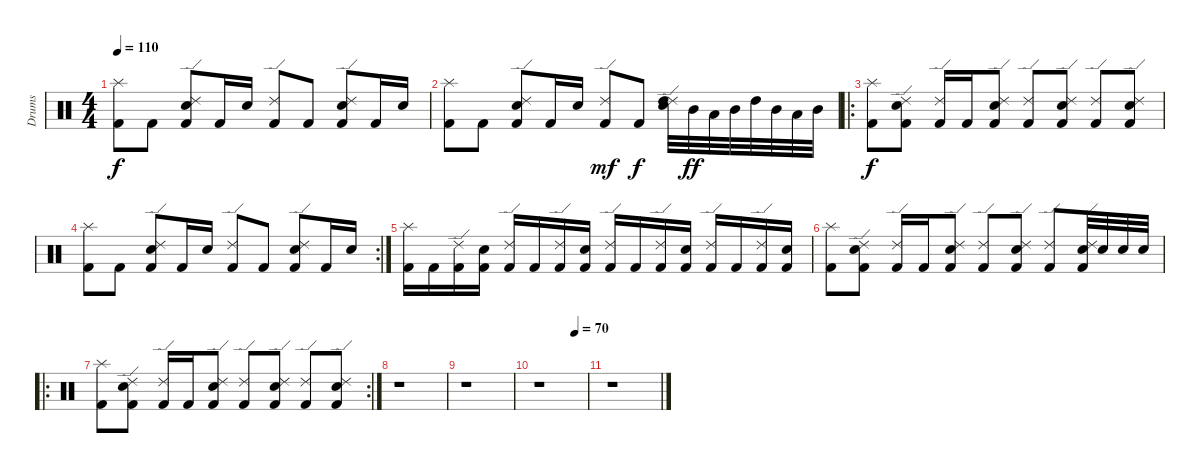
\track ("Drums" "Drums") {instrument percussion}
\staff {score}
\articulation defaults
\ts (4 4)
\tempo 110
\clef neutral
\ks c
("Splash (hit)" "Kick (hit) 2").8{dy f} "Kick (hit) 2".8 ("Electric Snare (hit)" "Ride (edge) 2" "Kick (hit) 2").8 "Kick (hit) 2".16 "Electric Snare (hit)".16 ("Ride (edge) 2" "Kick (hit) 2").8 "Kick (hit) 2".8 ("Electric Snare (hit)" "Ride (edge) 2" "Kick (hit) 2").8 "Kick (hit) 2".16 "Electric Snare (hit)".16 |
("Splash (hit)" "Kick (hit) 2").8 "Kick (hit) 2".8 ("Electric Snare (hit)" "Ride (edge) 2" "Kick (hit) 2").8 "Kick (hit) 2".16 "Electric Snare (hit)".16 ("Ride (edge) 2" "Kick (hit) 2").8{dy mf} "Kick (hit) 2".8{dy f} ("Electric Snare (hit)" "Ride (edge) 2" "High Tom (hit)").32 "Mid Tom (hit)".32{dy ff} "Low Tom (hit)".32 "Mid Tom (hit)".32 "High Tom (hit)".32 "Mid Tom (hit)".32 "Low Tom (hit)".32 "Mid Tom (hit)".32 |
\ro
("Splash (hit)" "Kick (hit) 2").8{dy f} ("Electric Snare (hit)" "Ride (edge) 2" "Kick (hit) 2").8 ("Ride (edge) 2" "Kick (hit) 2").16 "Kick (hit) 2".16 ("Electric Snare (hit)" "Ride (edge) 2" "Kick (hit) 2").8 ("Ride (edge) 2" "Kick (hit) 2").8 ("Electric Snare (hit)" "Ride (edge) 2" "Kick (hit) 2").8 ("Ride (edge) 2" "Kick (hit) 2").8 ("Electric Snare (hit)" "Ride (edge) 2" "Kick (hit) 2").8 |
\rc 2
("Splash (hit)" "Kick (hit) 2").8 "Kick (hit) 2".8 ("Electric Snare (hit)" "Ride (edge) 2" "Kick (hit) 2").8 "Kick (hit) 2".16 "Electric Snare (hit)".16 ("Ride (edge) 2" "Kick (hit) 2").8 "Kick (hit) 2".8 ("Electric Snare (hit)" "Ride (edge) 2" "Kick (hit) 2").8 "Kick (hit) 2".16 "Electric Snare (hit)".16 |
("Splash (hit)" "Kick (hit) 2").16 "Kick (hit) 2".16 ("Ride (edge) 2" "Kick (hit) 2").16 ("Electric Snare (hit)" "Kick (hit) 2").16 ("Ride (edge) 2" "Kick (hit) 2").16 "Kick (hit) 2".16 ("Ride (edge) 2" "Kick (hit) 2").16 ("Electric Snare (hit)" "Kick (hit) 2").16 ("Ride (edge) 2" "Kick (hit) 2").16 "Kick (hit) 2".16 ("Ride (edge) 2" "Kick (hit) 2").16 ("Electric Snare (hit)" "Kick (hit) 2").16 ("Ride (edge) 2" "Kick (hit) 2").16 "Kick (hit) 2".16 ("Ride (edge) 2" "Kick (hit) 2").16 ("Electric Snare (hit)" "Kick (hit) 2").16 |
("Splash (hit)" "Kick (hit) 2").8 ("Electric Snare (hit)" "Ride (edge) 2" "Kick (hit) 2").8 ("Ride (edge) 2" "Kick (hit) 2").16 "Kick (hit) 2".16 ("Electric Snare (hit)" "Ride (edge) 2" "Kick (hit) 2").8 ("Ride (edge) 2" "Kick (hit) 2").8 ("Electric Snare (hit)" "Ride (edge) 2" "Kick (hit) 2").8 ("Ride (edge) 2" "Kick (hit) 2").8 ("Electric Snare (hit)" "Ride (edge) 2" "Kick (hit) 2").32 "Electric Snare (hit)".32 "Electric Snare (hit)".32 "Electric Snare (hit)".32 |
\ro
\rc 2
("Splash (hit)" "Kick (hit) 2").8 ("Electric Snare (hit)" "Ride (edge) 2" "Kick (hit) 2").8 ("Ride (edge) 2" "Kick (hit) 2").16 "Kick (hit) 2".16 ("Electric Snare (hit)" "Ride (edge) 2" "Kick (hit) 2").8 ("Ride (edge) 2" "Kick (hit) 2").8 ("Electric Snare (hit)" "Ride (edge) 2" "Kick (hit) 2").8 ("Ride (edge) 2" "Kick (hit) 2").8 ("Electric Snare (hit)" "Ride (edge) 2" "Kick (hit) 2").8 |
r.1 |
r.1 |
\tempo (70 0.75)
r.1 |
r.1
